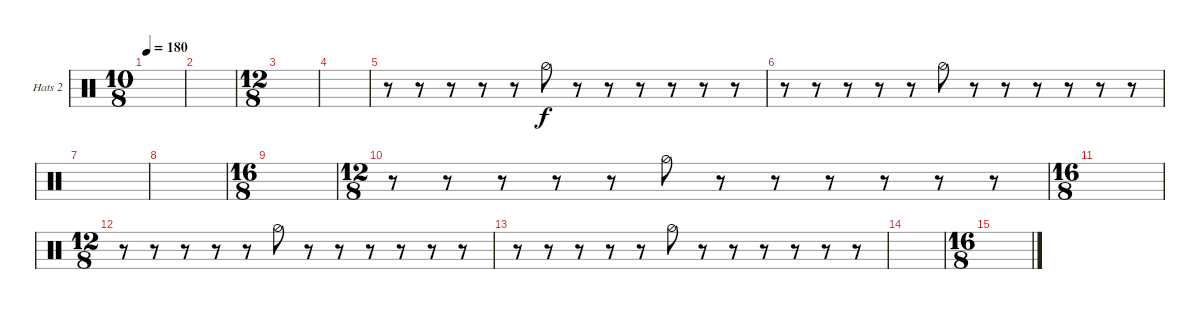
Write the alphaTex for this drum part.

\defaultSystemsLayout 4
\bracketExtendMode groupsimilarinstruments
\firstSystemTrackNameOrientation horizontal
\otherSystemsTrackNameOrientation horizontal
\track ("Hi Hats Open" "Hats 2") {instrument percussion}
\staff {score}
\articulation defaults
\ts (10 8)
\tempo 180
\clef neutral
\scale
0.474178
\ks c
|
\scale
0.262911 |
\ts (12 8)
\scale
0.262911 |
\scale
0.333333 |
\scale
0.333333 r.8 r.8 r.8 r.8 r.8 "Hi-Hat (half)".8 r.8 r.8 r.8 r.8 r.8 r.8 |
\scale
0.333333 r.8 r.8 r.8 r.8 r.8 "Hi-Hat (half)".8 r.8 r.8 r.8 r.8 r.8 r.8 |
\scale
0.333333 |
\scale
0.333333 |
\ts (16 8)
\scale
0.333333 |
\ts (12 8)
\scale
0.333333 r.8 r.8 r.8 r.8 r.8 "Hi-Hat (half)".8 r.8 r.8 r.8 r.8 r.8 r.8 |
\ts (16 8)
|
\ts (12 8)
\scale
0.333333 r.8 r.8 r.8 r.8 r.8 "Hi-Hat (half)".8 r.8 r.8 r.8 r.8 r.8 r.8 |
r.8 r.8 r.8 r.8 r.8 "Hi-Hat (half)".8 r.8 r.8 r.8 r.8 r.8 r.8 |
|
\ts (16 8)
\scale
0.333333 |
\scale
0.333333
